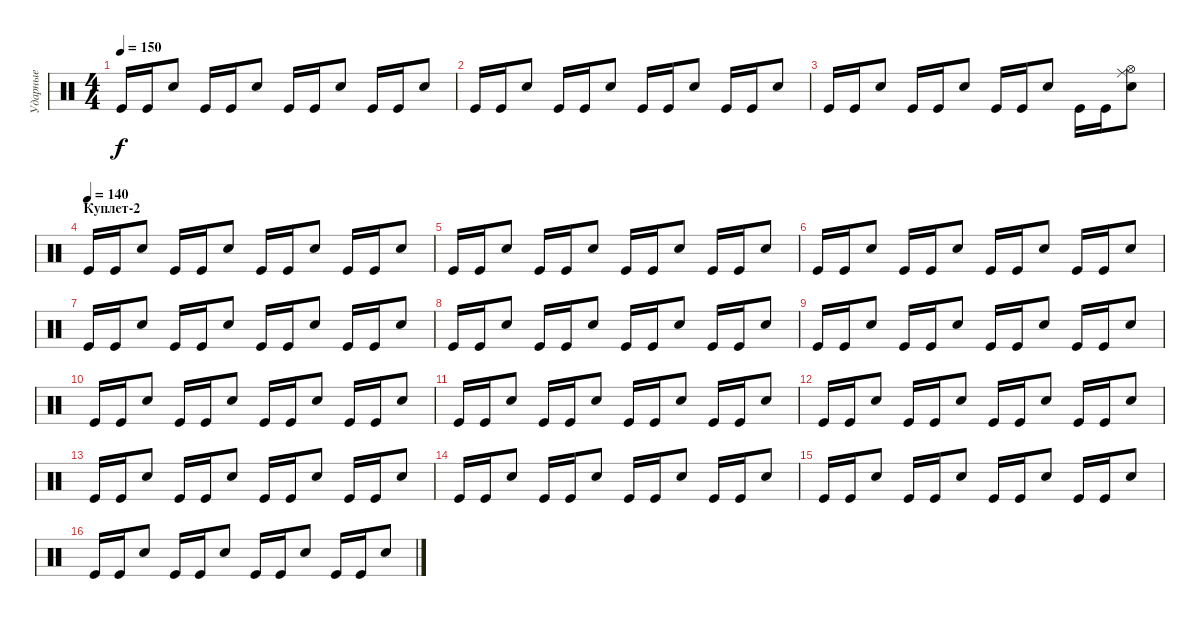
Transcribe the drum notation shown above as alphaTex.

\track ("Ударные" "Ударные") {instrument percussion}
\staff {score}
\articulation defaults
\ts (4 4)
\tempo 150
\clef neutral
\ks c "Kick (hit)".16{dy f} "Kick (hit)".16 "Electric Snare (hit)".8 "Kick (hit)".16 "Kick (hit)".16 "Electric Snare (hit)".8 "Kick (hit)".16 "Kick (hit)".16 "Electric Snare (hit)".8 "Kick (hit)".16 "Kick (hit)".16 "Electric Snare (hit)".8
|
"Kick (hit)".16 "Kick (hit)".16 "Electric Snare (hit)".8 "Kick (hit)".16 "Kick (hit)".16 "Electric Snare (hit)".8 "Kick (hit)".16 "Kick (hit)".16 "Electric Snare (hit)".8 "Kick (hit)".16 "Kick (hit)".16 "Electric Snare (hit)".8 |
"Kick (hit)".16 "Kick (hit)".16 "Electric Snare (hit)".8 "Kick (hit)".16 "Kick (hit)".16 "Electric Snare (hit)".8 "Kick (hit)".16 "Kick (hit)".16 "Electric Snare (hit)".8 "Kick (hit)".16 "Kick (hit)".16 ("Electric Snare (hit)" "Hi-Hat (open)" "Ride (middle)").8 |
\section ("" "Куплет-2")
\tempo (140)
"Kick (hit)".16 "Kick (hit)".16 "Electric Snare (hit)".8 "Kick (hit)".16 "Kick (hit)".16 "Electric Snare (hit)".8 "Kick (hit)".16 "Kick (hit)".16 "Electric Snare (hit)".8 "Kick (hit)".16 "Kick (hit)".16 "Electric Snare (hit)".8 |
"Kick (hit)".16 "Kick (hit)".16 "Electric Snare (hit)".8 "Kick (hit)".16 "Kick (hit)".16 "Electric Snare (hit)".8 "Kick (hit)".16 "Kick (hit)".16 "Electric Snare (hit)".8 "Kick (hit)".16 "Kick (hit)".16 "Electric Snare (hit)".8 |
"Kick (hit)".16 "Kick (hit)".16 "Electric Snare (hit)".8 "Kick (hit)".16 "Kick (hit)".16 "Electric Snare (hit)".8 "Kick (hit)".16 "Kick (hit)".16 "Electric Snare (hit)".8 "Kick (hit)".16 "Kick (hit)".16 "Electric Snare (hit)".8 |
"Kick (hit)".16 "Kick (hit)".16 "Electric Snare (hit)".8 "Kick (hit)".16 "Kick (hit)".16 "Electric Snare (hit)".8 "Kick (hit)".16 "Kick (hit)".16 "Electric Snare (hit)".8 "Kick (hit)".16 "Kick (hit)".16 "Electric Snare (hit)".8 |
"Kick (hit)".16 "Kick (hit)".16 "Electric Snare (hit)".8 "Kick (hit)".16 "Kick (hit)".16 "Electric Snare (hit)".8 "Kick (hit)".16 "Kick (hit)".16 "Electric Snare (hit)".8 "Kick (hit)".16 "Kick (hit)".16 "Electric Snare (hit)".8 |
"Kick (hit)".16 "Kick (hit)".16 "Electric Snare (hit)".8 "Kick (hit)".16 "Kick (hit)".16 "Electric Snare (hit)".8 "Kick (hit)".16 "Kick (hit)".16 "Electric Snare (hit)".8 "Kick (hit)".16 "Kick (hit)".16 "Electric Snare (hit)".8 |
"Kick (hit)".16 "Kick (hit)".16 "Electric Snare (hit)".8 "Kick (hit)".16 "Kick (hit)".16 "Electric Snare (hit)".8 "Kick (hit)".16 "Kick (hit)".16 "Electric Snare (hit)".8 "Kick (hit)".16 "Kick (hit)".16 "Electric Snare (hit)".8 |
"Kick (hit)".16 "Kick (hit)".16 "Electric Snare (hit)".8 "Kick (hit)".16 "Kick (hit)".16 "Electric Snare (hit)".8 "Kick (hit)".16 "Kick (hit)".16 "Electric Snare (hit)".8 "Kick (hit)".16 "Kick (hit)".16 "Electric Snare (hit)".8 |
"Kick (hit)".16 "Kick (hit)".16 "Electric Snare (hit)".8 "Kick (hit)".16 "Kick (hit)".16 "Electric Snare (hit)".8 "Kick (hit)".16 "Kick (hit)".16 "Electric Snare (hit)".8 "Kick (hit)".16 "Kick (hit)".16 "Electric Snare (hit)".8 |
"Kick (hit)".16 "Kick (hit)".16 "Electric Snare (hit)".8 "Kick (hit)".16 "Kick (hit)".16 "Electric Snare (hit)".8 "Kick (hit)".16 "Kick (hit)".16 "Electric Snare (hit)".8 "Kick (hit)".16 "Kick (hit)".16 "Electric Snare (hit)".8 |
"Kick (hit)".16 "Kick (hit)".16 "Electric Snare (hit)".8 "Kick (hit)".16 "Kick (hit)".16 "Electric Snare (hit)".8 "Kick (hit)".16 "Kick (hit)".16 "Electric Snare (hit)".8 "Kick (hit)".16 "Kick (hit)".16 "Electric Snare (hit)".8 |
"Kick (hit)".16 "Kick (hit)".16 "Electric Snare (hit)".8 "Kick (hit)".16 "Kick (hit)".16 "Electric Snare (hit)".8 "Kick (hit)".16 "Kick (hit)".16 "Electric Snare (hit)".8 "Kick (hit)".16 "Kick (hit)".16 "Electric Snare (hit)".8 |
"Kick (hit)".16 "Kick (hit)".16 "Electric Snare (hit)".8 "Kick (hit)".16 "Kick (hit)".16 "Electric Snare (hit)".8 "Kick (hit)".16 "Kick (hit)".16 "Electric Snare (hit)".8 "Kick (hit)".16 "Kick (hit)".16 "Electric Snare (hit)".8
